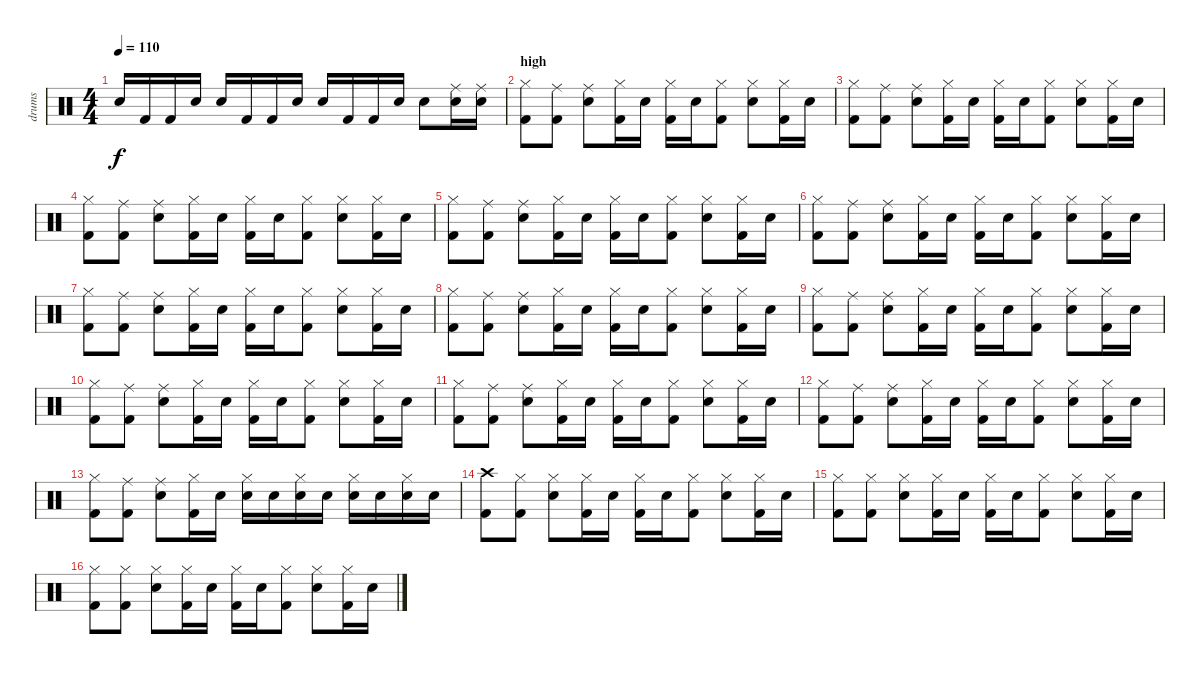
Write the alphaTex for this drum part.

\track ("drums" "drums") {instrument percussion}
\staff {score}
\articulation defaults
\ts (4 4)
\tempo 110
\clef neutral
\ks c "Snare (hit) 2".16{dy f} "Kick (hit) 2".16 "Kick (hit) 2".16 "Snare (hit) 2".16 "Snare (hit) 2".16 "Kick (hit) 2".16 "Kick (hit) 2".16 "Snare (hit) 2".16 "Snare (hit) 2".16 "Kick (hit) 2".16 "Kick (hit) 2".16 "Snare (hit) 2".16 "Snare (hit) 2".8
("Ride (middle)" "Snare (hit) 2").16 ("Ride (middle)" "Snare (hit) 2").16 |
\section ("" "high")
("Hi-Hat (closed)" "Kick (hit) 2").8 ("Ride (middle)" "Kick (hit) 2").8 ("Ride (middle)" "Snare (hit) 2").8 ("Hi-Hat (closed)" "Kick (hit) 2").16 "Snare (hit) 2".16 ("Hi-Hat (closed)" "Kick (hit) 2").16 "Snare (hit) 2".16 ("Hi-Hat (closed)" "Kick (hit) 2").8 ("Hi-Hat (closed)" "Snare (hit) 2").8 ("Hi-Hat (closed)" "Kick (hit) 2").16 "Snare (hit) 2".16 |
("Hi-Hat (closed)" "Kick (hit) 2").8 ("Ride (middle)" "Kick (hit) 2").8 ("Ride (middle)" "Snare (hit) 2").8 ("Hi-Hat (closed)" "Kick (hit) 2").16 "Snare (hit) 2".16 ("Hi-Hat (closed)" "Kick (hit) 2").16 "Snare (hit) 2".16 ("Hi-Hat (closed)" "Kick (hit) 2").8 ("Hi-Hat (closed)" "Snare (hit) 2").8 ("Hi-Hat (closed)" "Kick (hit) 2").16 "Snare (hit) 2".16 |
("Hi-Hat (closed)" "Kick (hit) 2").8 ("Ride (middle)" "Kick (hit) 2").8 ("Ride (middle)" "Snare (hit) 2").8 ("Hi-Hat (closed)" "Kick (hit) 2").16 "Snare (hit) 2".16 ("Hi-Hat (closed)" "Kick (hit) 2").16 "Snare (hit) 2".16 ("Hi-Hat (closed)" "Kick (hit) 2").8 ("Hi-Hat (closed)" "Snare (hit) 2").8 ("Hi-Hat (closed)" "Kick (hit) 2").16 "Snare (hit) 2".16 |
("Hi-Hat (closed)" "Kick (hit) 2").8 ("Ride (middle)" "Kick (hit) 2").8 ("Ride (middle)" "Snare (hit) 2").8 ("Hi-Hat (closed)" "Kick (hit) 2").16 "Snare (hit) 2".16 ("Hi-Hat (closed)" "Kick (hit) 2").16 "Snare (hit) 2".16 ("Hi-Hat (closed)" "Kick (hit) 2").8 ("Hi-Hat (closed)" "Snare (hit) 2").8 ("Hi-Hat (closed)" "Kick (hit) 2").16 "Snare (hit) 2".16 |
("Hi-Hat (closed)" "Kick (hit) 2").8 ("Ride (middle)" "Kick (hit) 2").8 ("Ride (middle)" "Snare (hit) 2").8 ("Hi-Hat (closed)" "Kick (hit) 2").16 "Snare (hit) 2".16 ("Hi-Hat (closed)" "Kick (hit) 2").16 "Snare (hit) 2".16 ("Hi-Hat (closed)" "Kick (hit) 2").8 ("Hi-Hat (closed)" "Snare (hit) 2").8 ("Hi-Hat (closed)" "Kick (hit) 2").16 "Snare (hit) 2".16 |
("Hi-Hat (closed)" "Kick (hit) 2").8 ("Ride (middle)" "Kick (hit) 2").8 ("Ride (middle)" "Snare (hit) 2").8 ("Hi-Hat (closed)" "Kick (hit) 2").16 "Snare (hit) 2".16 ("Hi-Hat (closed)" "Kick (hit) 2").16 "Snare (hit) 2".16 ("Hi-Hat (closed)" "Kick (hit) 2").8 ("Hi-Hat (closed)" "Snare (hit) 2").8 ("Hi-Hat (closed)" "Kick (hit) 2").16 "Snare (hit) 2".16 |
("Hi-Hat (closed)" "Kick (hit) 2").8 ("Ride (middle)" "Kick (hit) 2").8 ("Ride (middle)" "Snare (hit) 2").8 ("Hi-Hat (closed)" "Kick (hit) 2").16 "Snare (hit) 2".16 ("Hi-Hat (closed)" "Kick (hit) 2").16 "Snare (hit) 2".16 ("Hi-Hat (closed)" "Kick (hit) 2").8 ("Hi-Hat (closed)" "Snare (hit) 2").8 ("Hi-Hat (closed)" "Kick (hit) 2").16 "Snare (hit) 2".16 |
("Hi-Hat (closed)" "Kick (hit) 2").8 ("Ride (middle)" "Kick (hit) 2").8 ("Ride (middle)" "Snare (hit) 2").8 ("Hi-Hat (closed)" "Kick (hit) 2").16 "Snare (hit) 2".16 ("Hi-Hat (closed)" "Kick (hit) 2").16 "Snare (hit) 2".16 ("Hi-Hat (closed)" "Kick (hit) 2").8 ("Hi-Hat (closed)" "Snare (hit) 2").8 ("Hi-Hat (closed)" "Kick (hit) 2").16 "Snare (hit) 2".16 |
("Hi-Hat (closed)" "Kick (hit) 2").8 ("Ride (middle)" "Kick (hit) 2").8 ("Ride (middle)" "Snare (hit) 2").8 ("Hi-Hat (closed)" "Kick (hit) 2").16 "Snare (hit) 2".16 ("Hi-Hat (closed)" "Kick (hit) 2").16 "Snare (hit) 2".16 ("Hi-Hat (closed)" "Kick (hit) 2").8 ("Hi-Hat (closed)" "Snare (hit) 2").8 ("Hi-Hat (closed)" "Kick (hit) 2").16 "Snare (hit) 2".16 |
("Hi-Hat (closed)" "Kick (hit) 2").8 ("Ride (middle)" "Kick (hit) 2").8 ("Ride (middle)" "Snare (hit) 2").8 ("Hi-Hat (closed)" "Kick (hit) 2").16 "Snare (hit) 2".16 ("Hi-Hat (closed)" "Kick (hit) 2").16 "Snare (hit) 2".16 ("Hi-Hat (closed)" "Kick (hit) 2").8 ("Hi-Hat (closed)" "Snare (hit) 2").8 ("Hi-Hat (closed)" "Kick (hit) 2").16 "Snare (hit) 2".16 |
("Hi-Hat (closed)" "Kick (hit) 2").8 ("Ride (middle)" "Kick (hit) 2").8 ("Ride (middle)" "Snare (hit) 2").8 ("Hi-Hat (closed)" "Kick (hit) 2").16 "Snare (hit) 2".16 ("Hi-Hat (closed)" "Kick (hit) 2").16 "Snare (hit) 2".16 ("Hi-Hat (closed)" "Kick (hit) 2").8 ("Hi-Hat (closed)" "Snare (hit) 2").8 ("Hi-Hat (closed)" "Kick (hit) 2").16 "Snare (hit) 2".16 |
("Hi-Hat (closed)" "Kick (hit) 2").8 ("Ride (middle)" "Kick (hit) 2").8 ("Ride (middle)" "Snare (hit) 2").8 ("Hi-Hat (closed)" "Kick (hit) 2").16 "Snare (hit) 2".16 ("Hi-Hat (closed)" "Snare (hit) 2").16 "Snare (hit) 2".16 ("Hi-Hat (closed)" "Snare (hit) 2").16 "Snare (hit) 2".16 ("Hi-Hat (closed)" "Snare (hit) 2").16 "Snare (hit) 2".16 ("Hi-Hat (closed)" "Snare (hit) 2").16 "Snare (hit) 2".16 |
("Crash high (hit)" "Kick (hit) 2").8 ("Hi-Hat (closed)" "Kick (hit) 2").8 ("Hi-Hat (closed)" "Snare (hit) 2").8 ("Hi-Hat (closed)" "Kick (hit) 2").16 "Snare (hit) 2".16 ("Hi-Hat (closed)" "Kick (hit) 2").16 "Snare (hit) 2".16 ("Hi-Hat (closed)" "Kick (hit) 2").8 ("Hi-Hat (closed)" "Snare (hit) 2").8 ("Hi-Hat (closed)" "Kick (hit) 2").16 "Snare (hit) 2".16 |
("Hi-Hat (closed)" "Kick (hit) 2").8 ("Hi-Hat (closed)" "Kick (hit) 2").8 ("Hi-Hat (closed)" "Snare (hit) 2").8 ("Hi-Hat (closed)" "Kick (hit) 2").16 "Snare (hit) 2".16 ("Hi-Hat (closed)" "Kick (hit) 2").16 "Snare (hit) 2".16 ("Hi-Hat (closed)" "Kick (hit) 2").8 ("Hi-Hat (closed)" "Snare (hit) 2").8 ("Hi-Hat (closed)" "Kick (hit) 2").16 "Snare (hit) 2".16 |
("Hi-Hat (closed)" "Kick (hit) 2").8 ("Hi-Hat (closed)" "Kick (hit) 2").8 ("Hi-Hat (closed)" "Snare (hit) 2").8 ("Hi-Hat (closed)" "Kick (hit) 2").16 "Snare (hit) 2".16 ("Hi-Hat (closed)" "Kick (hit) 2").16 "Snare (hit) 2".16 ("Hi-Hat (closed)" "Kick (hit) 2").8 ("Hi-Hat (closed)" "Snare (hit) 2").8 ("Hi-Hat (closed)" "Kick (hit) 2").16 "Snare (hit) 2".16
